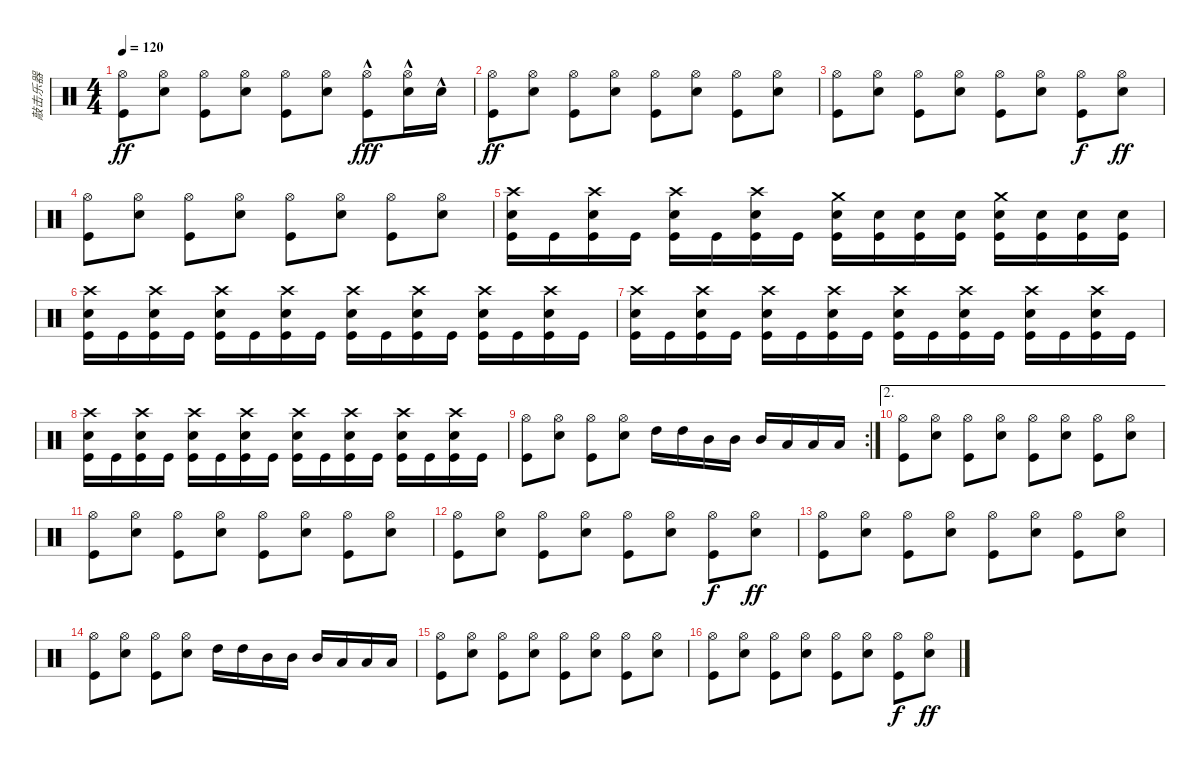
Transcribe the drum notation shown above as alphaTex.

\track ("敲击乐器" "敲击乐器") {instrument percussion}
\staff {score}
\articulation defaults
\ts (4 4)
\tempo 120
\clef neutral
\ks c
("Hi-Hat (open)" "Kick (hit)").8{dy ff} ("Hi-Hat (open)" "Electric Snare (hit)").8 ("Hi-Hat (open)" "Kick (hit)").8 ("Hi-Hat (open)" "Electric Snare (hit)").8 ("Hi-Hat (open)" "Kick (hit)").8 ("Hi-Hat (open)" "Electric Snare (hit)").8 ("Hi-Hat (open)" "Kick (hit)"{hac}).8{dy fff} ("Hi-Hat (open)" "Electric Snare (hit)"{hac}).16 "Electric Snare (hit)"{hac}.16 |
("Hi-Hat (open)" "Kick (hit)").8{dy ff} ("Hi-Hat (open)" "Electric Snare (hit)").8 ("Hi-Hat (open)" "Kick (hit)").8 ("Hi-Hat (open)" "Electric Snare (hit)").8 ("Hi-Hat (open)" "Kick (hit)").8 ("Hi-Hat (open)" "Electric Snare (hit)").8 ("Hi-Hat (open)" "Kick (hit)").8 ("Hi-Hat (open)" "Electric Snare (hit)").8 |
("Hi-Hat (open)" "Kick (hit)").8 ("Hi-Hat (open)" "Electric Snare (hit)").8 ("Hi-Hat (open)" "Kick (hit)").8 ("Hi-Hat (open)" "Electric Snare (hit)").8 ("Hi-Hat (open)" "Kick (hit)").8 ("Hi-Hat (open)" "Electric Snare (hit)").8 ("Hi-Hat (open)" "Kick (hit)").8{dy f} ("Hi-Hat (open)" "Electric Snare (hit)").8{dy ff} |
("Hi-Hat (open)" "Kick (hit)").8 ("Hi-Hat (open)" "Electric Snare (hit)").8 ("Hi-Hat (open)" "Kick (hit)").8 ("Hi-Hat (open)" "Electric Snare (hit)").8 ("Hi-Hat (open)" "Kick (hit)").8 ("Hi-Hat (open)" "Electric Snare (hit)").8 ("Hi-Hat (open)" "Kick (hit)").8 ("Hi-Hat (open)" "Electric Snare (hit)").8 |
("Crash high (hit)" "Electric Snare (hit)" "Kick (hit)").16 "Kick (hit)".16 ("Crash high (hit)" "Electric Snare (hit)" "Kick (hit)").16 "Kick (hit)".16 ("Crash high (hit)" "Electric Snare (hit)" "Kick (hit)").16 "Kick (hit)".16 ("Crash high (hit)" "Electric Snare (hit)" "Kick (hit)").16 "Kick (hit)".16 ("Crash medium (hit)" "Electric Snare (hit)" "Kick (hit)").16 ("Electric Snare (hit)" "Kick (hit)").16 ("Electric Snare (hit)" "Kick (hit)").16 ("Electric Snare (hit)" "Kick (hit)").16 ("Crash medium (hit)" "Electric Snare (hit)" "Kick (hit)").16 ("Electric Snare (hit)" "Kick (hit)").16 ("Electric Snare (hit)" "Kick (hit)").16 ("Electric Snare (hit)" "Kick (hit)").16 |
("Crash high (hit)" "Electric Snare (hit)" "Kick (hit)").16 "Kick (hit)".16 ("Crash high (hit)" "Electric Snare (hit)" "Kick (hit)").16 "Kick (hit)".16 ("Crash high (hit)" "Electric Snare (hit)" "Kick (hit)").16 "Kick (hit)".16 ("Crash high (hit)" "Electric Snare (hit)" "Kick (hit)").16 "Kick (hit)".16 ("Crash high (hit)" "Electric Snare (hit)" "Kick (hit)").16 "Kick (hit)".16 ("Crash high (hit)" "Electric Snare (hit)" "Kick (hit)").16 "Kick (hit)".16 ("Crash high (hit)" "Electric Snare (hit)" "Kick (hit)").16 "Kick (hit)".16 ("Crash high (hit)" "Electric Snare (hit)" "Kick (hit)").16 "Kick (hit)".16 |
("Crash high (hit)" "Electric Snare (hit)" "Kick (hit)").16 "Kick (hit)".16 ("Crash high (hit)" "Electric Snare (hit)" "Kick (hit)").16 "Kick (hit)".16 ("Crash high (hit)" "Electric Snare (hit)" "Kick (hit)").16 "Kick (hit)".16 ("Crash high (hit)" "Electric Snare (hit)" "Kick (hit)").16 "Kick (hit)".16 ("Crash high (hit)" "Electric Snare (hit)" "Kick (hit)").16 "Kick (hit)".16 ("Crash high (hit)" "Electric Snare (hit)" "Kick (hit)").16 "Kick (hit)".16 ("Crash high (hit)" "Electric Snare (hit)" "Kick (hit)").16 "Kick (hit)".16 ("Crash high (hit)" "Electric Snare (hit)" "Kick (hit)").16 "Kick (hit)".16 |
("Crash high (hit)" "Electric Snare (hit)" "Kick (hit)").16 "Kick (hit)".16 ("Crash high (hit)" "Electric Snare (hit)" "Kick (hit)").16 "Kick (hit)".16 ("Crash high (hit)" "Electric Snare (hit)" "Kick (hit)").16 "Kick (hit)".16 ("Crash high (hit)" "Electric Snare (hit)" "Kick (hit)").16 "Kick (hit)".16 ("Crash high (hit)" "Electric Snare (hit)" "Kick (hit)").16 "Kick (hit)".16 ("Crash high (hit)" "Electric Snare (hit)" "Kick (hit)").16 "Kick (hit)".16 ("Crash high (hit)" "Electric Snare (hit)" "Kick (hit)").16 "Kick (hit)".16 ("Crash high (hit)" "Electric Snare (hit)" "Kick (hit)").16 "Kick (hit)".16 |
\rc 2
("Hi-Hat (open)" "Kick (hit)").8 ("Hi-Hat (open)" "Electric Snare (hit)").8 ("Hi-Hat (open)" "Kick (hit)").8 ("Hi-Hat (open)" "Electric Snare (hit)").8 "High Tom (hit)".16 "High Tom (hit)".16 "Mid Tom (hit)".16 "Mid Tom (hit)".16 "Mid Tom (hit)".16 "Low Tom (hit)".16 "Low Tom (hit)".16 "Low Floor Tom (hit)".16 |
\ae 2
("Hi-Hat (open)" "Kick (hit)").8 ("Hi-Hat (open)" "Electric Snare (hit)").8 ("Hi-Hat (open)" "Kick (hit)").8 ("Hi-Hat (open)" "Electric Snare (hit)").8 ("Hi-Hat (open)" "Kick (hit)").8 ("Hi-Hat (open)" "Electric Snare (hit)").8 ("Hi-Hat (open)" "Kick (hit)").8 ("Hi-Hat (open)" "Electric Snare (hit)").8 |
("Hi-Hat (open)" "Kick (hit)").8 ("Hi-Hat (open)" "Electric Snare (hit)").8 ("Hi-Hat (open)" "Kick (hit)").8 ("Hi-Hat (open)" "Electric Snare (hit)").8 ("Hi-Hat (open)" "Kick (hit)").8 ("Hi-Hat (open)" "Electric Snare (hit)").8 ("Hi-Hat (open)" "Kick (hit)").8 ("Hi-Hat (open)" "Electric Snare (hit)").8 |
("Hi-Hat (open)" "Kick (hit)").8 ("Hi-Hat (open)" "Electric Snare (hit)").8 ("Hi-Hat (open)" "Kick (hit)").8 ("Hi-Hat (open)" "Electric Snare (hit)").8 ("Hi-Hat (open)" "Kick (hit)").8 ("Hi-Hat (open)" "Electric Snare (hit)").8 ("Hi-Hat (open)" "Kick (hit)").8{dy f} ("Hi-Hat (open)" "Electric Snare (hit)").8{dy ff} |
("Hi-Hat (open)" "Kick (hit)").8 ("Hi-Hat (open)" "Electric Snare (hit)").8 ("Hi-Hat (open)" "Kick (hit)").8 ("Hi-Hat (open)" "Electric Snare (hit)").8 ("Hi-Hat (open)" "Kick (hit)").8 ("Hi-Hat (open)" "Electric Snare (hit)").8 ("Hi-Hat (open)" "Kick (hit)").8 ("Hi-Hat (open)" "Electric Snare (hit)").8 |
("Hi-Hat (open)" "Kick (hit)").8 ("Hi-Hat (open)" "Electric Snare (hit)").8 ("Hi-Hat (open)" "Kick (hit)").8 ("Hi-Hat (open)" "Electric Snare (hit)").8 "High Tom (hit)".16 "High Tom (hit)".16 "Mid Tom (hit)".16 "Mid Tom (hit)".16 "Mid Tom (hit)".16 "Low Tom (hit)".16 "Low Tom (hit)".16 "Low Floor Tom (hit)".16 |
("Hi-Hat (open)" "Kick (hit)").8 ("Hi-Hat (open)" "Electric Snare (hit)").8 ("Hi-Hat (open)" "Kick (hit)").8 ("Hi-Hat (open)" "Electric Snare (hit)").8 ("Hi-Hat (open)" "Kick (hit)").8 ("Hi-Hat (open)" "Electric Snare (hit)").8 ("Hi-Hat (open)" "Kick (hit)").8 ("Hi-Hat (open)" "Electric Snare (hit)").8 |
("Hi-Hat (open)" "Kick (hit)").8 ("Hi-Hat (open)" "Electric Snare (hit)").8 ("Hi-Hat (open)" "Kick (hit)").8 ("Hi-Hat (open)" "Electric Snare (hit)").8 ("Hi-Hat (open)" "Kick (hit)").8 ("Hi-Hat (open)" "Electric Snare (hit)").8 ("Hi-Hat (open)" "Kick (hit)").8{dy f} ("Hi-Hat (open)" "Electric Snare (hit)").8{dy ff}
